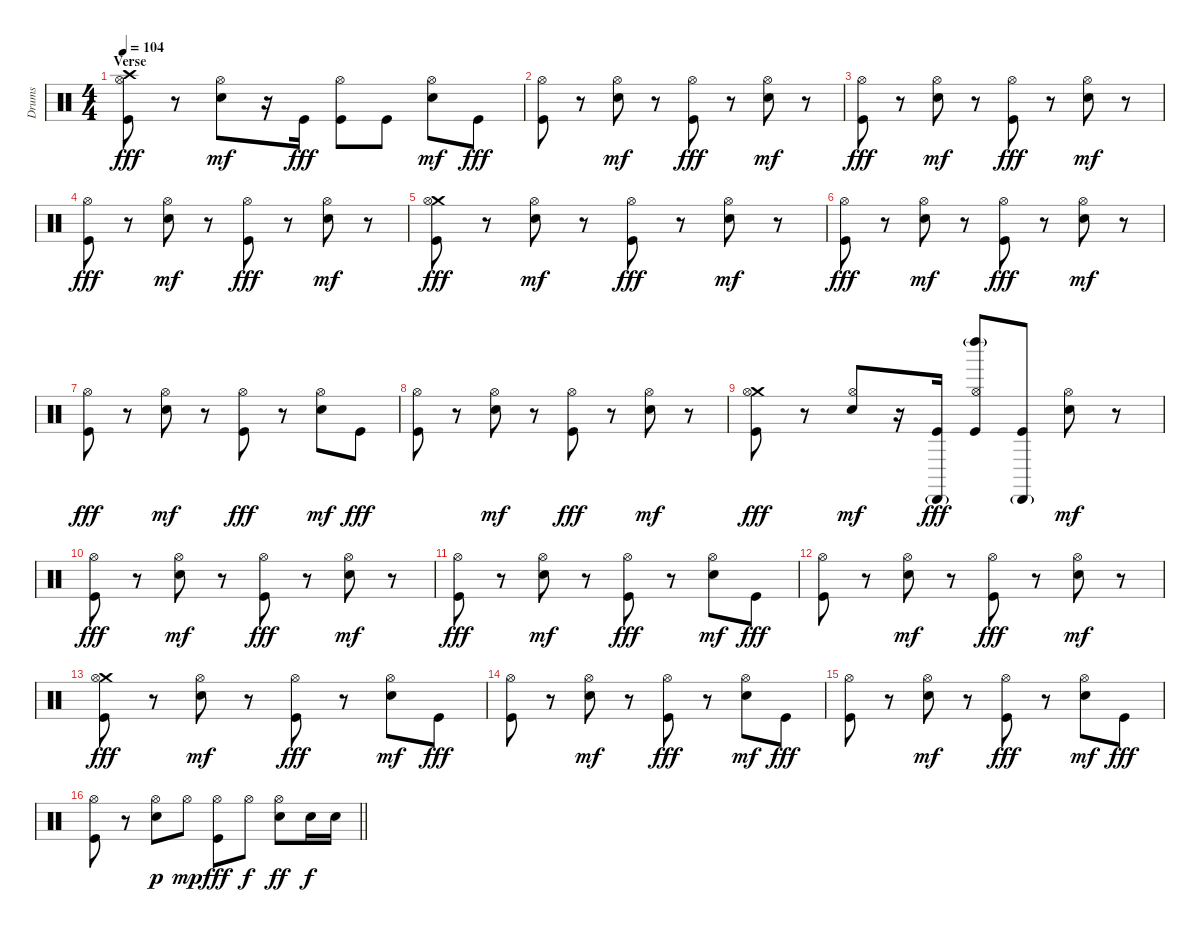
\track ("Drums" "Drums") {instrument percussion}
\staff {score}
\articulation defaults
\ts (4 4)
\section ("" "Verse")
\tempo 104
\clef neutral
\ks c
("Crash high (hit)" "Hi-Hat (open)" "Kick (hit)").8{dy fff} r.8 ("Hi-Hat (open)" "Electric Snare (hit)").8{dy mf} r.16 "Kick (hit)".16{dy fff} ("Hi-Hat (open)" "Kick (hit)").8 "Kick (hit)".8 ("Hi-Hat (open)" "Electric Snare (hit)").8{dy mf} "Kick (hit)".8{dy fff} |
("Hi-Hat (open)" "Kick (hit)").8 r.8 ("Hi-Hat (open)" "Electric Snare (hit)").8{dy mf} r.8 ("Hi-Hat (open)" "Kick (hit)").8{dy fff} r.8 ("Hi-Hat (open)" "Electric Snare (hit)").8{dy mf} r.8 |
("Hi-Hat (open)" "Kick (hit)").8{dy fff} r.8 ("Hi-Hat (open)" "Electric Snare (hit)").8{dy mf} r.8 ("Hi-Hat (open)" "Kick (hit)").8{dy fff} r.8 ("Hi-Hat (open)" "Electric Snare (hit)").8{dy mf} r.8 |
("Hi-Hat (open)" "Kick (hit)").8{dy fff} r.8 ("Hi-Hat (open)" "Electric Snare (hit)").8{dy mf} r.8 ("Hi-Hat (open)" "Kick (hit)").8{dy fff} r.8 ("Hi-Hat (open)" "Electric Snare (hit)").8{dy mf} r.8 |
("Crash medium (hit)" "Hi-Hat (open)" "Kick (hit)").8{dy fff} r.8 ("Hi-Hat (open)" "Electric Snare (hit)").8{dy mf} r.8 ("Hi-Hat (open)" "Kick (hit)").8{dy fff} r.8 ("Hi-Hat (open)" "Electric Snare (hit)").8{dy mf} r.8 |
("Hi-Hat (open)" "Kick (hit)").8{dy fff} r.8 ("Hi-Hat (open)" "Electric Snare (hit)").8{dy mf} r.8 ("Hi-Hat (open)" "Kick (hit)").8{dy fff} r.8 ("Hi-Hat (open)" "Electric Snare (hit)").8{dy mf} r.8 |
("Hi-Hat (open)" "Kick (hit)").8{dy fff} r.8 ("Hi-Hat (open)" "Electric Snare (hit)").8{dy mf} r.8 ("Hi-Hat (open)" "Kick (hit)").8{dy fff} r.8 ("Hi-Hat (open)" "Electric Snare (hit)").8{dy mf} "Kick (hit)".8{dy fff} |
("Hi-Hat (open)" "Kick (hit)").8 r.8 ("Hi-Hat (open)" "Electric Snare (hit)").8{dy mf} r.8 ("Hi-Hat (open)" "Kick (hit)").8{dy fff} r.8 ("Hi-Hat (open)" "Electric Snare (hit)").8{dy mf} r.8 |
("Crash medium (hit)" "Hi-Hat (open)" "Kick (hit)").8{dy fff} r.8 ("Hi-Hat (open)" "Electric Snare (hit)").8{dy mf} r.16 ("Cabasa (hit)"{g} "Kick (hit)").16{dy fff} ("Hi-Hat (open)" "Left Maraca (hit)"{g} "Kick (hit)").8 ("Cabasa (hit)"{g} "Kick (hit)").8 ("Hi-Hat (open)" "Electric Snare (hit)").8{dy mf} r.8 |
("Hi-Hat (open)" "Kick (hit)").8{dy fff} r.8 ("Hi-Hat (open)" "Electric Snare (hit)").8{dy mf} r.8 ("Hi-Hat (open)" "Kick (hit)").8{dy fff} r.8 ("Hi-Hat (open)" "Electric Snare (hit)").8{dy mf} r.8 |
("Hi-Hat (open)" "Kick (hit)").8{dy fff} r.8 ("Hi-Hat (open)" "Electric Snare (hit)").8{dy mf} r.8 ("Hi-Hat (open)" "Kick (hit)").8{dy fff} r.8 ("Hi-Hat (open)" "Electric Snare (hit)").8{dy mf} "Kick (hit)".8{dy fff} |
("Hi-Hat (open)" "Kick (hit)").8 r.8 ("Hi-Hat (open)" "Electric Snare (hit)").8{dy mf} r.8 ("Hi-Hat (open)" "Kick (hit)").8{dy fff} r.8 ("Hi-Hat (open)" "Electric Snare (hit)").8{dy mf} r.8 |
("Crash medium (hit)" "Hi-Hat (open)" "Kick (hit)").8{dy fff} r.8 ("Hi-Hat (open)" "Electric Snare (hit)").8{dy mf} r.8 ("Hi-Hat (open)" "Kick (hit)").8{dy fff} r.8 ("Hi-Hat (open)" "Electric Snare (hit)").8{dy mf} "Kick (hit)".8{dy fff} |
("Hi-Hat (open)" "Kick (hit)").8 r.8 ("Hi-Hat (open)" "Electric Snare (hit)").8{dy mf} r.8 ("Hi-Hat (open)" "Kick (hit)").8{dy fff} r.8 ("Hi-Hat (open)" "Electric Snare (hit)").8{dy mf} "Kick (hit)".8{dy fff} |
("Hi-Hat (open)" "Kick (hit)").8 r.8 ("Hi-Hat (open)" "Electric Snare (hit)").8{dy mf} r.8 ("Hi-Hat (open)" "Kick (hit)").8{dy fff} r.8 ("Hi-Hat (open)" "Electric Snare (hit)").8{dy mf} "Kick (hit)".8{dy fff} |
\barLineRight lightlight
("Hi-Hat (open)" "Kick (hit)").8 r.8 ("Hi-Hat (open)" "Electric Snare (hit)").8{dy p} "Hi-Hat (open)".8{dy mp} ("Hi-Hat (open)" "Kick (hit)").8{dy fff} "Hi-Hat (open)".8{dy f} ("Hi-Hat (open)" "Electric Snare (hit)").8{dy ff} "Electric Snare (hit)".16{dy f} "Electric Snare (hit)".16
